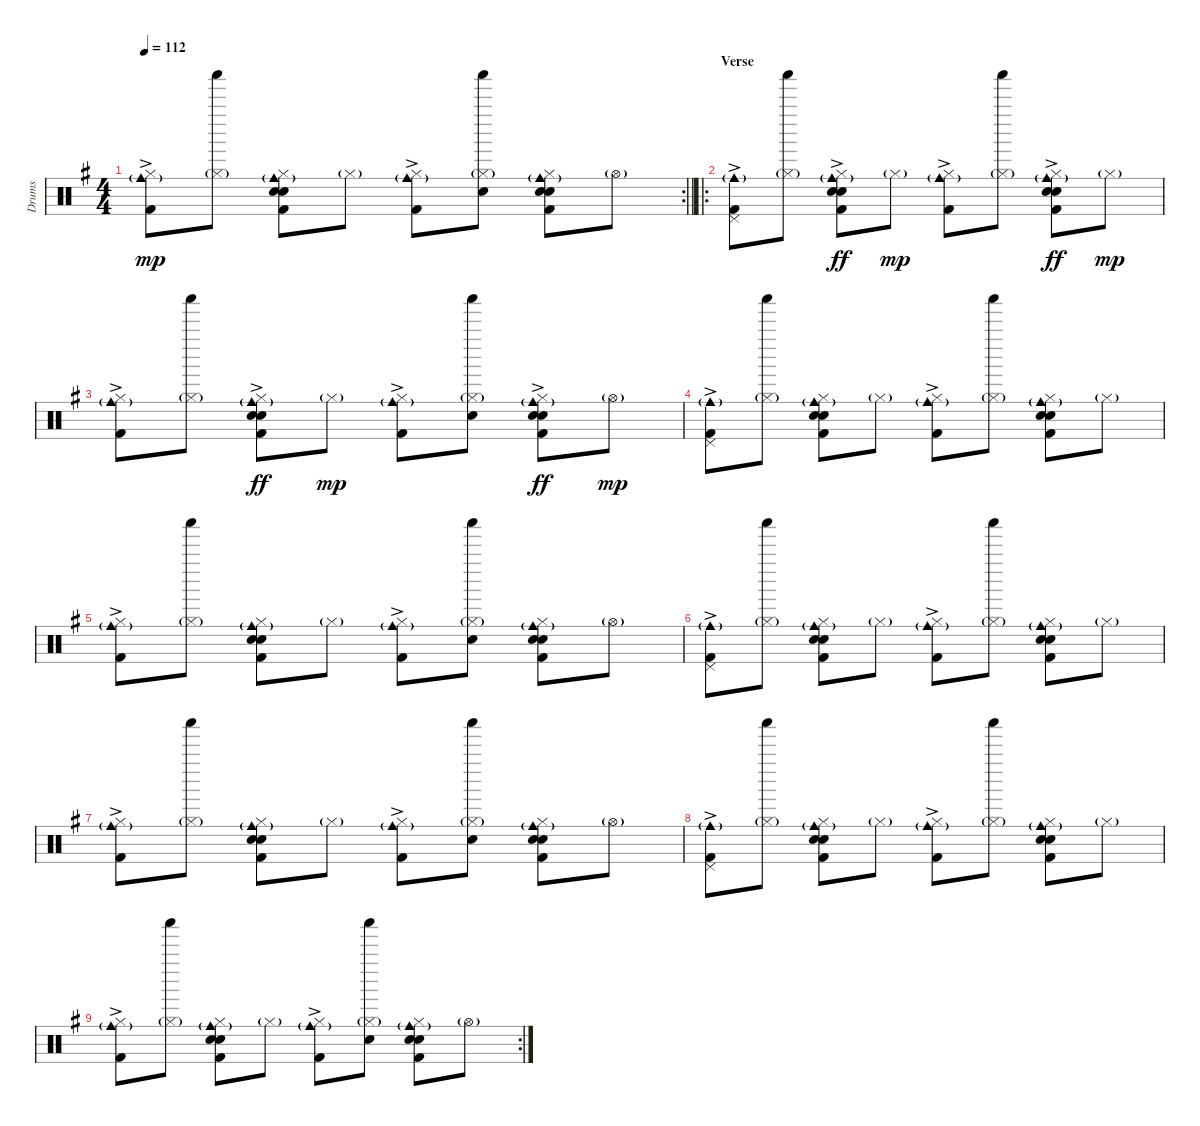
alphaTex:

\track ("Drums" "Drums") {instrument percussion}
\staff {score}
\articulation defaults
\rc 2
\ts (4 4)
\tempo 112
\clef neutral
\barLineRight lightlight
\ks g
("Hi-Hat (closed)"{ac} "Cowbell medium (hit)"{g} "Kick (hit) 2").8{dy mp} ("Hi-Hat (closed)"{g} "Shaker (hit)").8 ("Hi-Hat (closed)" "Hand Clap (hit)" "Electric Snare (hit)" "Cowbell medium (hit)"{g} "Kick (hit) 2").8 "Hi-Hat (closed)"{g}.8 ("Hi-Hat (closed)"{ac} "Cowbell medium (hit)"{g} "Kick (hit) 2").8 ("Hi-Hat (closed)"{g} "Hand Clap (hit)" "Shaker (hit)").8 ("Hi-Hat (closed)" "Hand Clap (hit)" "Electric Snare (hit)" "Cowbell medium (hit)"{g} "Kick (hit) 2").8 "Hi-Hat (open)"{g}.8 |
\ro
\section ("" "Verse")
("Pedal Hi-Hat (hit)"{ac} "Cowbell medium (hit)"{g} "Kick (hit) 2").8 ("Hi-Hat (closed)"{g} "Shaker (hit)").8 ("Hi-Hat (closed)" "Hand Clap (hit)" "Cowbell medium (hit)"{g} "Electric Snare (hit)"{ac} "Kick (hit) 2").8{dy ff} "Hi-Hat (closed)"{g}.8{dy mp} ("Hi-Hat (closed)"{ac} "Cowbell medium (hit)"{g} "Kick (hit) 2").8 ("Hi-Hat (closed)"{g} "Shaker (hit)").8 ("Hi-Hat (closed)" "Hand Clap (hit)" "Cowbell medium (hit)"{g} "Electric Snare (hit)"{ac} "Kick (hit) 2").8{dy ff} "Hi-Hat (closed)"{g}.8{dy mp} |
("Hi-Hat (closed)"{ac} "Cowbell medium (hit)"{g} "Kick (hit) 2").8 ("Hi-Hat (closed)"{g} "Shaker (hit)").8 ("Hi-Hat (closed)" "Hand Clap (hit)" "Cowbell medium (hit)"{g} "Electric Snare (hit)"{ac} "Kick (hit) 2").8{dy ff} "Hi-Hat (closed)"{g}.8{dy mp} ("Hi-Hat (closed)"{ac} "Cowbell medium (hit)"{g} "Kick (hit) 2").8 ("Hi-Hat (closed)"{g} "Hand Clap (hit)" "Shaker (hit)").8 ("Hi-Hat (closed)" "Hand Clap (hit)" "Cowbell medium (hit)"{g} "Electric Snare (hit)"{ac} "Kick (hit) 2").8{dy ff} "Hi-Hat (open)"{g}.8{dy mp} |
("Pedal Hi-Hat (hit)"{ac} "Cowbell medium (hit)"{g} "Kick (hit) 2").8 ("Hi-Hat (closed)"{g} "Shaker (hit)").8 ("Hi-Hat (closed)" "Hand Clap (hit)" "Electric Snare (hit)" "Cowbell medium (hit)"{g} "Kick (hit) 2").8 "Hi-Hat (closed)"{g}.8 ("Hi-Hat (closed)"{ac} "Cowbell medium (hit)"{g} "Kick (hit) 2").8 ("Hi-Hat (closed)"{g} "Shaker (hit)").8 ("Hi-Hat (closed)" "Hand Clap (hit)" "Electric Snare (hit)" "Cowbell medium (hit)"{g} "Kick (hit) 2").8 "Hi-Hat (closed)"{g}.8 |
("Hi-Hat (closed)"{ac} "Cowbell medium (hit)"{g} "Kick (hit) 2").8 ("Hi-Hat (closed)"{g} "Shaker (hit)").8 ("Hi-Hat (closed)" "Hand Clap (hit)" "Electric Snare (hit)" "Cowbell medium (hit)"{g} "Kick (hit) 2").8 "Hi-Hat (closed)"{g}.8 ("Hi-Hat (closed)"{ac} "Cowbell medium (hit)"{g} "Kick (hit) 2").8 ("Hi-Hat (closed)"{g} "Hand Clap (hit)" "Shaker (hit)").8 ("Hi-Hat (closed)" "Hand Clap (hit)" "Electric Snare (hit)" "Cowbell medium (hit)"{g} "Kick (hit) 2").8 "Hi-Hat (open)"{g}.8 |
("Pedal Hi-Hat (hit)"{ac} "Cowbell medium (hit)"{g} "Kick (hit) 2").8 ("Hi-Hat (closed)"{g} "Shaker (hit)").8 ("Hi-Hat (closed)" "Hand Clap (hit)" "Electric Snare (hit)" "Cowbell medium (hit)"{g} "Kick (hit) 2").8 "Hi-Hat (closed)"{g}.8 ("Hi-Hat (closed)"{ac} "Cowbell medium (hit)"{g} "Kick (hit) 2").8 ("Hi-Hat (closed)"{g} "Shaker (hit)").8 ("Hi-Hat (closed)" "Hand Clap (hit)" "Electric Snare (hit)" "Cowbell medium (hit)"{g} "Kick (hit) 2").8 "Hi-Hat (closed)"{g}.8 |
("Hi-Hat (closed)"{ac} "Cowbell medium (hit)"{g} "Kick (hit) 2").8 ("Hi-Hat (closed)"{g} "Shaker (hit)").8 ("Hi-Hat (closed)" "Hand Clap (hit)" "Electric Snare (hit)" "Cowbell medium (hit)"{g} "Kick (hit) 2").8 "Hi-Hat (closed)"{g}.8 ("Hi-Hat (closed)"{ac} "Cowbell medium (hit)"{g} "Kick (hit) 2").8 ("Hi-Hat (closed)"{g} "Hand Clap (hit)" "Shaker (hit)").8 ("Hi-Hat (closed)" "Hand Clap (hit)" "Electric Snare (hit)" "Cowbell medium (hit)"{g} "Kick (hit) 2").8 "Hi-Hat (open)"{g}.8 |
("Pedal Hi-Hat (hit)"{ac} "Cowbell medium (hit)"{g} "Kick (hit) 2").8 ("Hi-Hat (closed)"{g} "Shaker (hit)").8 ("Hi-Hat (closed)" "Hand Clap (hit)" "Electric Snare (hit)" "Cowbell medium (hit)"{g} "Kick (hit) 2").8 "Hi-Hat (closed)"{g}.8 ("Hi-Hat (closed)"{ac} "Cowbell medium (hit)"{g} "Kick (hit) 2").8 ("Hi-Hat (closed)"{g} "Shaker (hit)").8 ("Hi-Hat (closed)" "Hand Clap (hit)" "Electric Snare (hit)" "Cowbell medium (hit)"{g} "Kick (hit) 2").8 "Hi-Hat (closed)"{g}.8 |
\rc 2
("Hi-Hat (closed)"{ac} "Cowbell medium (hit)"{g} "Kick (hit) 2").8 ("Hi-Hat (closed)"{g} "Shaker (hit)").8 ("Hi-Hat (closed)" "Hand Clap (hit)" "Electric Snare (hit)" "Cowbell medium (hit)"{g} "Kick (hit) 2").8 "Hi-Hat (closed)"{g}.8 ("Hi-Hat (closed)"{ac} "Cowbell medium (hit)"{g} "Kick (hit) 2").8 ("Hi-Hat (closed)"{g} "Hand Clap (hit)" "Shaker (hit)").8 ("Hi-Hat (closed)" "Hand Clap (hit)" "Electric Snare (hit)" "Cowbell medium (hit)"{g} "Kick (hit) 2").8 "Hi-Hat (open)"{g}.8
